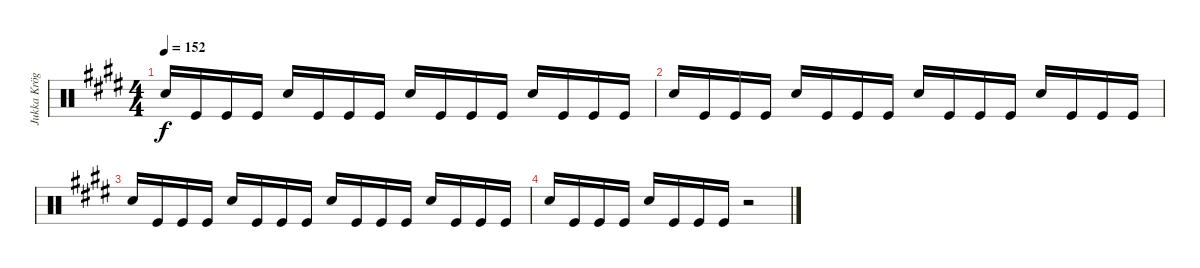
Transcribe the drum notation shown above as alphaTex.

\track ("Jukka Kröger" "Jukka Krög") {instrument percussion}
\staff {score}
\articulation defaults
\ts (4 4)
\tempo 152
\clef neutral
\ks e "Snare (hit) 2".16{dy f} "Kick (hit)".16 "Kick (hit)".16 "Kick (hit)".16 "Snare (hit) 2".16 "Kick (hit)".16 "Kick (hit)".16 "Kick (hit)".16 "Snare (hit) 2".16 "Kick (hit)".16 "Kick (hit)".16 "Kick (hit)".16 "Snare (hit) 2".16 "Kick (hit)".16 "Kick (hit)".16 "Kick (hit)".16
|
"Snare (hit) 2".16 "Kick (hit)".16 "Kick (hit)".16 "Kick (hit)".16 "Snare (hit) 2".16 "Kick (hit)".16 "Kick (hit)".16 "Kick (hit)".16 "Snare (hit) 2".16 "Kick (hit)".16 "Kick (hit)".16 "Kick (hit)".16 "Snare (hit) 2".16 "Kick (hit)".16 "Kick (hit)".16 "Kick (hit)".16 |
"Snare (hit) 2".16 "Kick (hit)".16 "Kick (hit)".16 "Kick (hit)".16 "Snare (hit) 2".16 "Kick (hit)".16 "Kick (hit)".16 "Kick (hit)".16 "Snare (hit) 2".16 "Kick (hit)".16 "Kick (hit)".16 "Kick (hit)".16 "Snare (hit) 2".16 "Kick (hit)".16 "Kick (hit)".16 "Kick (hit)".16 |
"Snare (hit) 2".16 "Kick (hit)".16 "Kick (hit)".16 "Kick (hit)".16 "Snare (hit) 2".16 "Kick (hit)".16 "Kick (hit)".16 "Kick (hit)".16 r.2
